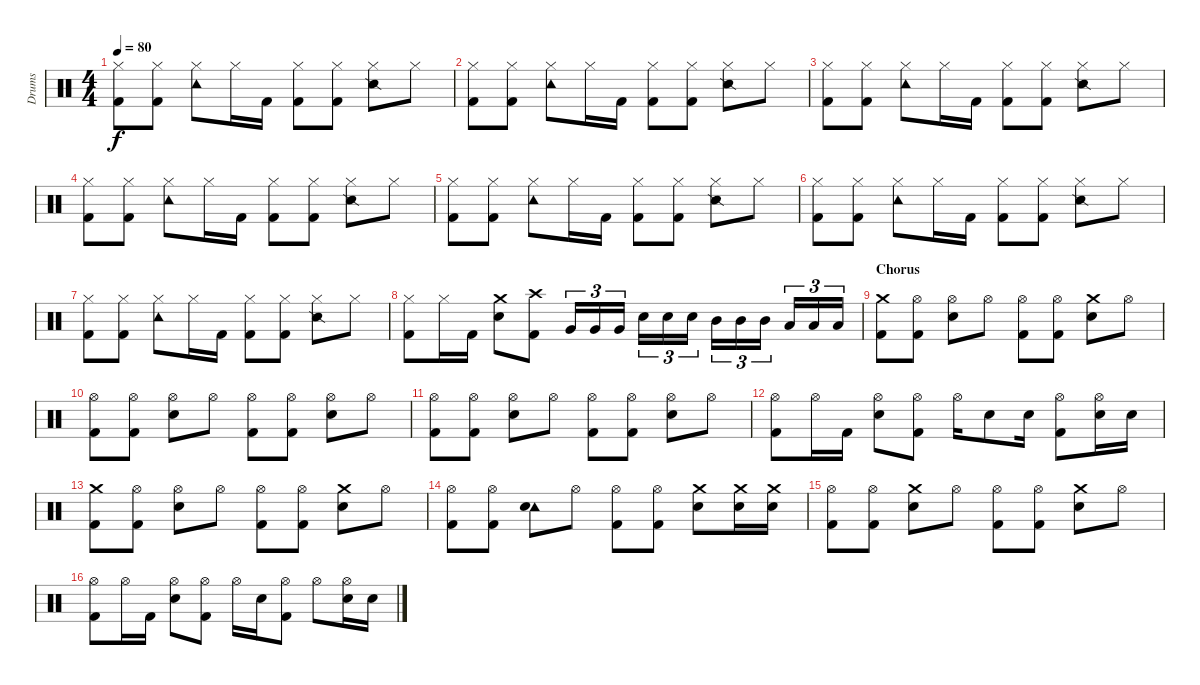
\track ("Drums" "Drums") {instrument percussion}
\staff {score}
\articulation defaults
\ts (4 4)
\tempo 80
\clef neutral
\ks c
("Hi-Hat (closed)" "Kick (hit) 2").8{dy f} ("Hi-Hat (closed)" "Kick (hit) 2").8 ("Hi-Hat (closed)" "Tambourine (hit)").8 "Hi-Hat (closed)".16 "Kick (hit) 2".16 ("Hi-Hat (closed)" "Kick (hit) 2").8 ("Hi-Hat (closed)" "Kick (hit) 2").8 ("Hi-Hat (closed)" "Snare (side stick) 2").8 "Hi-Hat (closed)".8 |
("Hi-Hat (closed)" "Kick (hit) 2").8 ("Hi-Hat (closed)" "Kick (hit) 2").8 ("Hi-Hat (closed)" "Tambourine (hit)").8 "Hi-Hat (closed)".16 "Kick (hit) 2".16 ("Hi-Hat (closed)" "Kick (hit) 2").8 ("Hi-Hat (closed)" "Kick (hit) 2").8 ("Hi-Hat (closed)" "Snare (side stick) 2").8 "Hi-Hat (closed)".8 |
("Hi-Hat (closed)" "Kick (hit) 2").8 ("Hi-Hat (closed)" "Kick (hit) 2").8 ("Hi-Hat (closed)" "Tambourine (hit)").8 "Hi-Hat (closed)".16 "Kick (hit) 2".16 ("Hi-Hat (closed)" "Kick (hit) 2").8 ("Hi-Hat (closed)" "Kick (hit) 2").8 ("Hi-Hat (closed)" "Snare (side stick) 2").8 "Hi-Hat (closed)".8 |
("Hi-Hat (closed)" "Kick (hit) 2").8 ("Hi-Hat (closed)" "Kick (hit) 2").8 ("Hi-Hat (closed)" "Tambourine (hit)").8 "Hi-Hat (closed)".16 "Kick (hit) 2".16 ("Hi-Hat (closed)" "Kick (hit) 2").8 ("Hi-Hat (closed)" "Kick (hit) 2").8 ("Hi-Hat (closed)" "Snare (side stick) 2").8 "Hi-Hat (closed)".8 |
("Hi-Hat (closed)" "Kick (hit) 2").8 ("Hi-Hat (closed)" "Kick (hit) 2").8 ("Hi-Hat (closed)" "Tambourine (hit)").8 "Hi-Hat (closed)".16 "Kick (hit) 2".16 ("Hi-Hat (closed)" "Kick (hit) 2").8 ("Hi-Hat (closed)" "Kick (hit) 2").8 ("Hi-Hat (closed)" "Snare (side stick) 2").8 "Hi-Hat (closed)".8 |
("Hi-Hat (closed)" "Kick (hit) 2").8 ("Hi-Hat (closed)" "Kick (hit) 2").8 ("Hi-Hat (closed)" "Tambourine (hit)").8 "Hi-Hat (closed)".16 "Kick (hit) 2".16 ("Hi-Hat (closed)" "Kick (hit) 2").8 ("Hi-Hat (closed)" "Kick (hit) 2").8 ("Hi-Hat (closed)" "Snare (side stick) 2").8 "Hi-Hat (closed)".8 |
("Hi-Hat (closed)" "Kick (hit) 2").8 ("Hi-Hat (closed)" "Kick (hit) 2").8 ("Hi-Hat (closed)" "Tambourine (hit)").8 "Hi-Hat (closed)".16 "Kick (hit) 2".16 ("Hi-Hat (closed)" "Kick (hit) 2").8 ("Hi-Hat (closed)" "Kick (hit) 2").8 ("Hi-Hat (closed)" "Snare (side stick) 2").8 "Hi-Hat (closed)".8 |
("Hi-Hat (closed)" "Kick (hit) 2").8 "Hi-Hat (closed)".16 "Kick (hit) 2".16 ("Crash medium (hit)" "Snare (hit) 2").8 ("Crash high (hit)" "Kick (hit) 2").8 "Very Low Tom (hit)".16{tu (3 2)} "Very Low Tom (hit)".16{tu (3 2)} "Very Low Tom (hit)".16{tu (3 2)} "Snare (hit) 2".16{tu (3 2)} "Snare (hit) 2".16{tu (3 2)} "Snare (hit) 2".16{tu (3 2)} "Mid Tom (hit)".16{tu (3 2)} "Mid Tom (hit)".16{tu (3 2)} "Mid Tom (hit)".16{tu (3 2)} "Low Tom (hit)".16{tu (3 2)} "Low Tom (hit)".16{tu (3 2)} "Low Tom (hit)".16{tu (3 2)} |
\section ("" "Chorus")
("Crash medium (hit)" "Kick (hit) 2").8 ("Hi-Hat (open)" "Kick (hit) 2").8 ("Hi-Hat (open)" "Snare (hit) 2").8 "Hi-Hat (open)".8 ("Hi-Hat (open)" "Kick (hit) 2").8 ("Hi-Hat (open)" "Kick (hit) 2").8 ("Crash medium (hit)" "Snare (hit) 2").8 "Hi-Hat (open)".8 |
("Hi-Hat (open)" "Kick (hit) 2").8 ("Hi-Hat (open)" "Kick (hit) 2").8 ("Hi-Hat (open)" "Snare (hit) 2").8 "Hi-Hat (open)".8 ("Hi-Hat (open)" "Kick (hit) 2").8 ("Hi-Hat (open)" "Kick (hit) 2").8 ("Hi-Hat (open)" "Snare (hit) 2").8 "Hi-Hat (open)".8 |
("Hi-Hat (open)" "Kick (hit) 2").8 ("Hi-Hat (open)" "Kick (hit) 2").8 ("Hi-Hat (open)" "Snare (hit) 2").8 "Hi-Hat (open)".8 ("Hi-Hat (open)" "Kick (hit) 2").8 ("Hi-Hat (open)" "Kick (hit) 2").8 ("Hi-Hat (open)" "Snare (hit) 2").8 "Hi-Hat (open)".8 |
("Hi-Hat (open)" "Kick (hit) 2").8 "Hi-Hat (open)".16 "Kick (hit) 2".16 ("Hi-Hat (open)" "Snare (hit) 2").8 ("Hi-Hat (open)" "Kick (hit) 2").8 "Hi-Hat (open)".16 "Snare (hit) 2".8 "Snare (hit) 2".16 ("Hi-Hat (open)" "Kick (hit) 2").8 ("Hi-Hat (open)" "Snare (hit) 2").16 "Snare (hit) 2".16 |
("Crash medium (hit)" "Kick (hit) 2").8 ("Hi-Hat (open)" "Kick (hit) 2").8 ("Hi-Hat (open)" "Snare (hit) 2").8 "Hi-Hat (open)".8 ("Hi-Hat (open)" "Kick (hit) 2").8 ("Hi-Hat (open)" "Kick (hit) 2").8 ("Crash medium (hit)" "Snare (hit) 2").8 "Hi-Hat (open)".8 |
("Hi-Hat (open)" "Kick (hit) 2").8 ("Hi-Hat (open)" "Kick (hit) 2").8 ("Tambourine (hit)" "Snare (hit) 2").8 "Hi-Hat (open)".8 ("Hi-Hat (open)" "Kick (hit) 2").8 ("Hi-Hat (open)" "Kick (hit) 2").8 ("Crash medium (hit)" "Snare (hit) 2").8 ("Crash medium (hit)" "Snare (hit) 2").16 ("Crash medium (hit)" "Snare (hit) 2").16 |
("Hi-Hat (open)" "Kick (hit) 2").8 ("Hi-Hat (open)" "Kick (hit) 2").8 ("Crash medium (hit)" "Snare (hit) 2").8 "Hi-Hat (open)".8 ("Hi-Hat (open)" "Kick (hit) 2").8 ("Hi-Hat (open)" "Kick (hit) 2").8 ("Crash medium (hit)" "Snare (hit) 2").8 "Hi-Hat (open)".8 |
("Hi-Hat (open)" "Kick (hit) 2").8 "Hi-Hat (open)".16 "Kick (hit) 2".16 ("Hi-Hat (open)" "Snare (hit) 2").8 ("Hi-Hat (open)" "Kick (hit) 2").8 "Hi-Hat (open)".16 "Snare (hit) 2".16 ("Hi-Hat (open)" "Kick (hit) 2").8 "Hi-Hat (open)".8 ("Hi-Hat (open)" "Snare (hit) 2").16 "Snare (hit) 2".16
